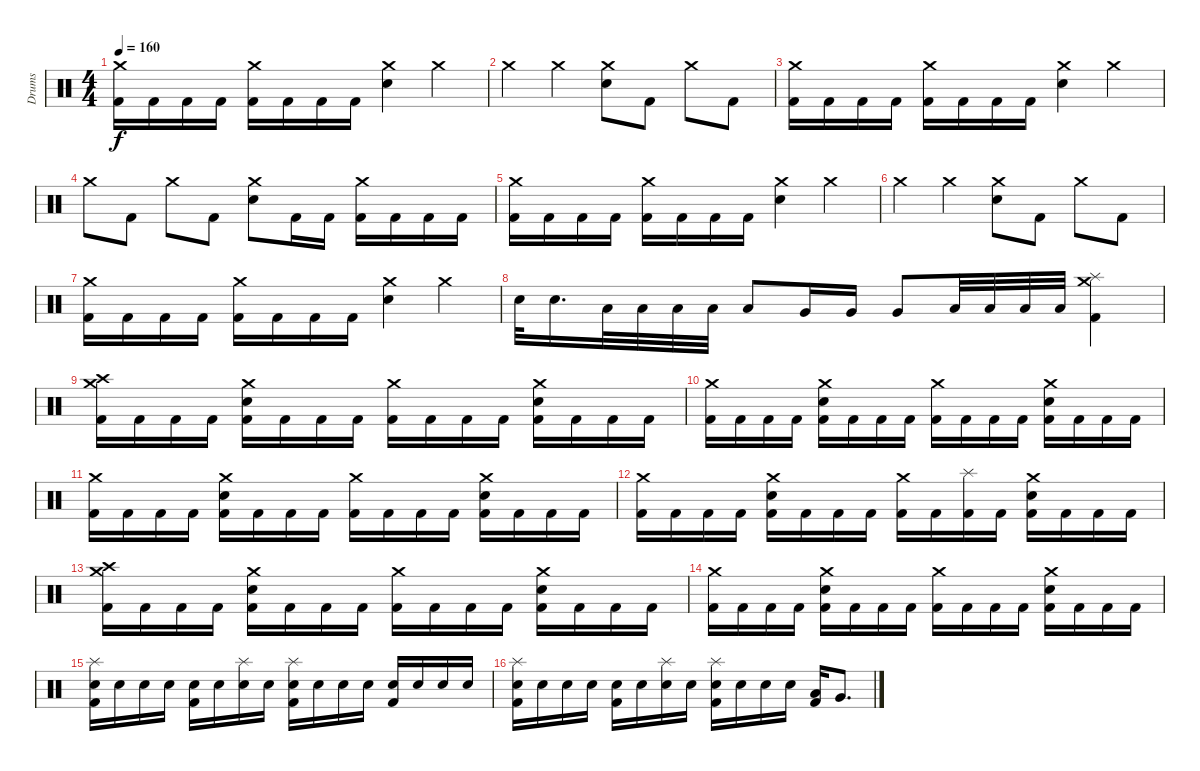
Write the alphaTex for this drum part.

\track ("Drums" "Drums") {instrument percussion}
\staff {score}
\articulation defaults
\ts (4 4)
\tempo 160
\clef neutral
\ks c
("Crash medium (hit)" "Kick (hit) 2").16{dy f} "Kick (hit) 2".16 "Kick (hit) 2".16 "Kick (hit) 2".16 ("Crash medium (hit)" "Kick (hit) 2").16 "Kick (hit) 2".16 "Kick (hit) 2".16 "Kick (hit) 2".16 ("Crash medium (hit)" "Electric Snare (hit)").4 "Crash medium (hit)".4 |
"Crash medium (hit)".4 "Crash medium (hit)".4 ("Crash medium (hit)" "Electric Snare (hit)").8 "Kick (hit) 2".8 "Crash medium (hit)".8 "Kick (hit) 2".8 |
("Crash medium (hit)" "Kick (hit) 2").16 "Kick (hit) 2".16 "Kick (hit) 2".16 "Kick (hit) 2".16 ("Crash medium (hit)" "Kick (hit) 2").16 "Kick (hit) 2".16 "Kick (hit) 2".16 "Kick (hit) 2".16 ("Crash medium (hit)" "Electric Snare (hit)").4 "Crash medium (hit)".4 |
"Crash medium (hit)".8 "Kick (hit) 2".8 "Crash medium (hit)".8 "Kick (hit) 2".8 ("Crash medium (hit)" "Electric Snare (hit)").8 "Kick (hit) 2".16 "Kick (hit) 2".16 ("Crash medium (hit)" "Kick (hit) 2").16 "Kick (hit) 2".16 "Kick (hit) 2".16 "Kick (hit) 2".16 |
("Crash medium (hit)" "Kick (hit) 2").16 "Kick (hit) 2".16 "Kick (hit) 2".16 "Kick (hit) 2".16 ("Crash medium (hit)" "Kick (hit) 2").16 "Kick (hit) 2".16 "Kick (hit) 2".16 "Kick (hit) 2".16 ("Crash medium (hit)" "Electric Snare (hit)").4 "Crash medium (hit)".4 |
"Crash medium (hit)".4 "Crash medium (hit)".4 ("Crash medium (hit)" "Electric Snare (hit)").8 "Kick (hit) 2".8 "Crash medium (hit)".8 "Kick (hit) 2".8 |
("Crash medium (hit)" "Kick (hit) 2").16 "Kick (hit) 2".16 "Kick (hit) 2".16 "Kick (hit) 2".16 ("Crash medium (hit)" "Kick (hit) 2").16 "Kick (hit) 2".16 "Kick (hit) 2".16 "Kick (hit) 2".16 ("Crash medium (hit)" "Electric Snare (hit)").4 "Crash medium (hit)".4 |
"Electric Snare (hit)".32 "Electric Snare (hit)".16{d} "Low Tom (hit)".32 "Low Tom (hit)".32 "Low Tom (hit)".32 "Low Tom (hit)".32 "Low Tom (hit)".8 "Very Low Tom (hit)".16 "Very Low Tom (hit)".16 "Very Low Tom (hit)".8 "Low Floor Tom (hit)".32 "Low Floor Tom (hit)".32 "Low Floor Tom (hit)".32 "Low Floor Tom (hit)".32 ("Splash (hit)" "Crash medium (hit)" "Kick (hit) 2").4 |
("Crash medium (hit)" "Crash high (hit)" "Kick (hit) 2").16 "Kick (hit) 2".16 "Kick (hit) 2".16 "Kick (hit) 2".16 ("Crash medium (hit)" "Electric Snare (hit)" "Kick (hit) 2").16 "Kick (hit) 2".16 "Kick (hit) 2".16 "Kick (hit) 2".16 ("Crash medium (hit)" "Kick (hit) 2").16 "Kick (hit) 2".16 "Kick (hit) 2".16 "Kick (hit) 2".16 ("Crash medium (hit)" "Electric Snare (hit)" "Kick (hit) 2").16 "Kick (hit) 2".16 "Kick (hit) 2".16 "Kick (hit) 2".16 |
("Crash medium (hit)" "Kick (hit) 2").16 "Kick (hit) 2".16 "Kick (hit) 2".16 "Kick (hit) 2".16 ("Crash medium (hit)" "Electric Snare (hit)" "Kick (hit) 2").16 "Kick (hit) 2".16 "Kick (hit) 2".16 "Kick (hit) 2".16 ("Crash medium (hit)" "Kick (hit) 2").16 "Kick (hit) 2".16 "Kick (hit) 2".16 "Kick (hit) 2".16 ("Crash medium (hit)" "Electric Snare (hit)" "Kick (hit) 2").16 "Kick (hit) 2".16 "Kick (hit) 2".16 "Kick (hit) 2".16 |
("Crash medium (hit)" "Kick (hit) 2").16 "Kick (hit) 2".16 "Kick (hit) 2".16 "Kick (hit) 2".16 ("Crash medium (hit)" "Electric Snare (hit)" "Kick (hit) 2").16 "Kick (hit) 2".16 "Kick (hit) 2".16 "Kick (hit) 2".16 ("Crash medium (hit)" "Kick (hit) 2").16 "Kick (hit) 2".16 "Kick (hit) 2".16 "Kick (hit) 2".16 ("Crash medium (hit)" "Electric Snare (hit)" "Kick (hit) 2").16 "Kick (hit) 2".16 "Kick (hit) 2".16 "Kick (hit) 2".16 |
("Crash medium (hit)" "Kick (hit) 2").16 "Kick (hit) 2".16 "Kick (hit) 2".16 "Kick (hit) 2".16 ("Crash medium (hit)" "Electric Snare (hit)" "Kick (hit) 2").16 "Kick (hit) 2".16 "Kick (hit) 2".16 "Kick (hit) 2".16 ("Crash medium (hit)" "Kick (hit) 2").16 "Kick (hit) 2".16 ("Splash (hit)" "Kick (hit) 2").16 "Kick (hit) 2".16 ("Crash medium (hit)" "Electric Snare (hit)" "Kick (hit) 2").16 "Kick (hit) 2".16 "Kick (hit) 2".16 "Kick (hit) 2".16 |
("Crash medium (hit)" "Crash high (hit)" "Kick (hit) 2").16 "Kick (hit) 2".16 "Kick (hit) 2".16 "Kick (hit) 2".16 ("Crash medium (hit)" "Electric Snare (hit)" "Kick (hit) 2").16 "Kick (hit) 2".16 "Kick (hit) 2".16 "Kick (hit) 2".16 ("Crash medium (hit)" "Kick (hit) 2").16 "Kick (hit) 2".16 "Kick (hit) 2".16 "Kick (hit) 2".16 ("Crash medium (hit)" "Electric Snare (hit)" "Kick (hit) 2").16 "Kick (hit) 2".16 "Kick (hit) 2".16 "Kick (hit) 2".16 |
("Crash medium (hit)" "Kick (hit) 2").16 "Kick (hit) 2".16 "Kick (hit) 2".16 "Kick (hit) 2".16 ("Crash medium (hit)" "Electric Snare (hit)" "Kick (hit) 2").16 "Kick (hit) 2".16 "Kick (hit) 2".16 "Kick (hit) 2".16 ("Crash medium (hit)" "Kick (hit) 2").16 "Kick (hit) 2".16 "Kick (hit) 2".16 "Kick (hit) 2".16 ("Crash medium (hit)" "Electric Snare (hit)" "Kick (hit) 2").16 "Kick (hit) 2".16 "Kick (hit) 2".16 "Kick (hit) 2".16 |
("Splash (hit)" "Electric Snare (hit)" "Kick (hit) 2").16 "Electric Snare (hit)".16 "Electric Snare (hit)".16 "Electric Snare (hit)".16 ("Electric Snare (hit)" "Kick (hit) 2").16 "Electric Snare (hit)".16 ("Splash (hit)" "Electric Snare (hit)").16 "Electric Snare (hit)".16 ("Splash (hit)" "Electric Snare (hit)" "Kick (hit) 2").16 "Electric Snare (hit)".16 "Electric Snare (hit)".16 "Electric Snare (hit)".16 ("Electric Snare (hit)" "Kick (hit) 2").16 "Electric Snare (hit)".16 "Electric Snare (hit)".16 "Electric Snare (hit)".16 |
("Splash (hit)" "Electric Snare (hit)" "Kick (hit) 2").16 "Electric Snare (hit)".16 "Electric Snare (hit)".16 "Electric Snare (hit)".16 ("Electric Snare (hit)" "Kick (hit) 2").16 "Electric Snare (hit)".16 ("Splash (hit)" "Electric Snare (hit)").16 "Electric Snare (hit)".16 ("Splash (hit)" "Electric Snare (hit)" "Kick (hit) 2").16 "Electric Snare (hit)".16 "Electric Snare (hit)".16 "Electric Snare (hit)".16 ("Low Tom (hit)" "Kick (hit) 2").16 "Very Low Tom (hit)".8{d}
